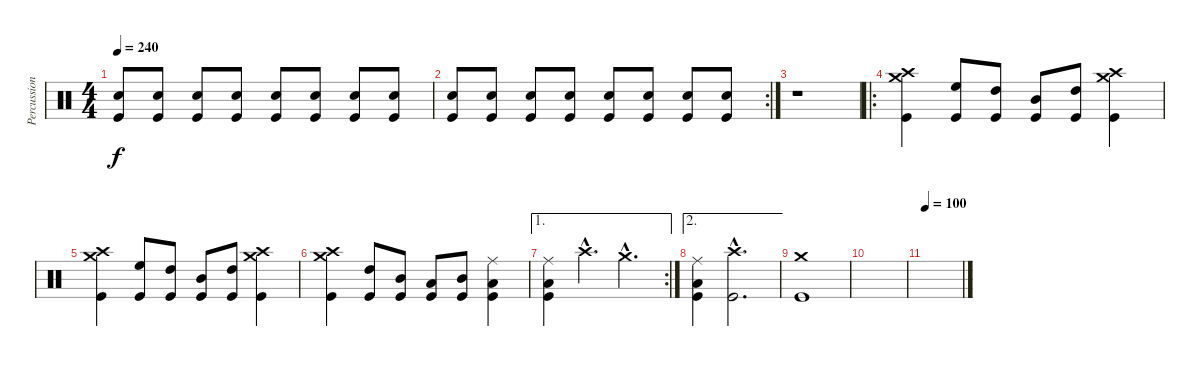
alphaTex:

\track ("Percussion" "Percussion") {instrument percussion}
\staff {score}
\articulation defaults
\ts (4 4)
\tempo 240
\clef neutral
\ks c
("Snare (hit) 2" "Kick (hit)").8{dy f volume 10} ("Snare (hit) 2" "Kick (hit)").8 ("Snare (hit) 2" "Kick (hit)").8 ("Snare (hit) 2" "Kick (hit)").8 ("Snare (hit) 2" "Kick (hit)").8 ("Snare (hit) 2" "Kick (hit)").8 ("Snare (hit) 2" "Kick (hit)").8 ("Snare (hit) 2" "Kick (hit)").8 |
\rc 2
("Snare (hit) 2" "Kick (hit)").8{volume 10} ("Snare (hit) 2" "Kick (hit)").8 ("Snare (hit) 2" "Kick (hit)").8 ("Snare (hit) 2" "Kick (hit)").8 ("Snare (hit) 2" "Kick (hit)").8 ("Snare (hit) 2" "Kick (hit)").8 ("Snare (hit) 2" "Kick (hit)").8 ("Snare (hit) 2" "Kick (hit)").8 |
r.1 |
\ro
("Crash medium (hit)" "Crash high (hit)" "Kick (hit)").4 ("High Floor Tom (hit)" "Kick (hit)").8 ("High Tom (hit)" "Kick (hit)").8 ("Mid Tom (hit)" "Kick (hit)").8 ("High Tom (hit)" "Kick (hit)").8 ("Crash medium (hit)" "Crash high (hit)" "Kick (hit)").4 |
("Crash medium (hit)" "Crash high (hit)" "Kick (hit)").4 ("High Floor Tom (hit)" "Kick (hit)").8 ("High Tom (hit)" "Kick (hit)").8 ("Mid Tom (hit)" "Kick (hit)").8 ("High Tom (hit)" "Kick (hit)").8 ("Crash medium (hit)" "Crash high (hit)" "Kick (hit)").4 |
("Crash medium (hit)" "Crash high (hit)" "Kick (hit)").4 ("High Tom (hit)" "Kick (hit)").8 ("Mid Tom (hit)" "Kick (hit)").8 ("Low Tom (hit)" "Kick (hit)").8 ("Mid Tom (hit)" "Kick (hit)").8 ("Ride (middle)" "Low Tom (hit)" "Kick (hit)").4 |
\ae 1
\rc 2
("Ride (middle)" "Low Tom (hit)" "Kick (hit)").4 "Crash high (hit)"{hac}.4{d} "Crash medium (hit)"{hac}.4{d} |
\ae 2
("Ride (middle)" "Low Tom (hit)" "Kick (hit)").4 ("Crash high (hit)"{hac} "Kick (hit)"{hac}).2{d} |
("Crash medium (hit)" "Kick (hit)").1 |
|
\tempo 100
